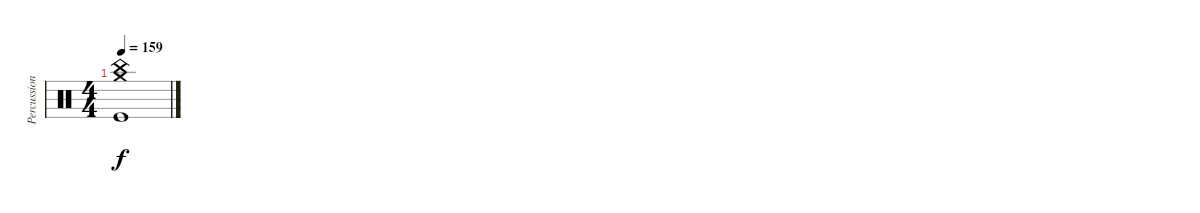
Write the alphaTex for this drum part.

\track ("Percussion" "Percussion") {instrument percussion}
\staff {score}
\articulation defaults
\ts (4 4)
\tempo 159
\clef neutral
\ks c
("China (hit)" "Crash medium (hit)" "Kick (hit)").1{dy f}
